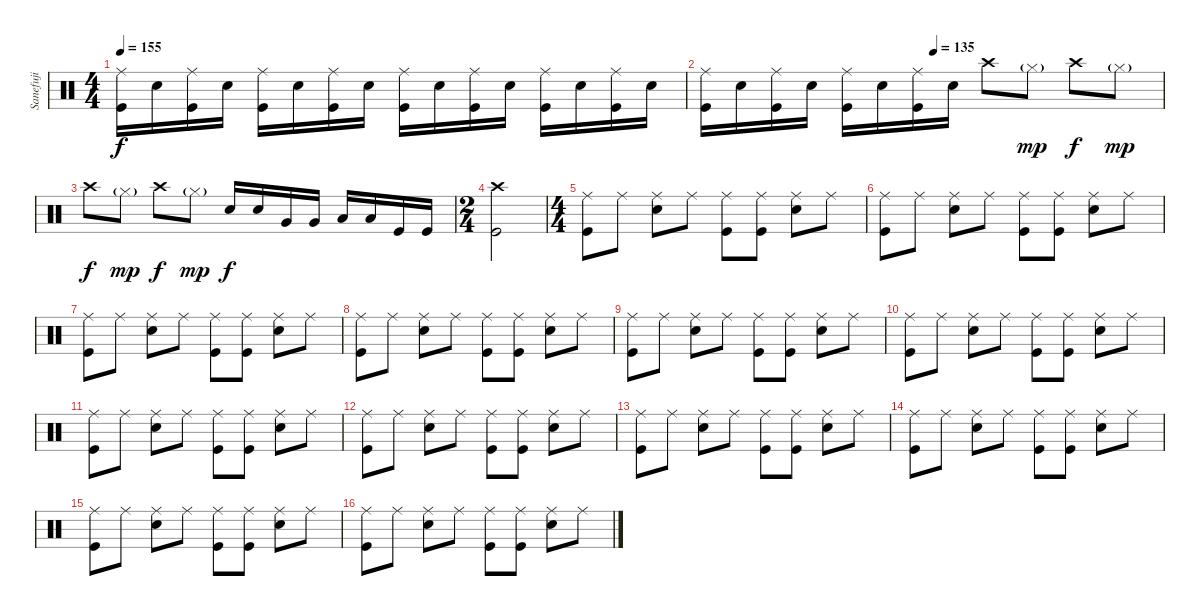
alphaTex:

\track ("Sanefuji" "Sanefuji") {instrument percussion}
\staff {score}
\articulation defaults
\ts (4 4)
\tempo 155
\clef neutral
\ks c
("Ride (middle)" "Kick (hit)").16{dy f} "Electric Snare (hit)".16 ("Ride (middle)" "Kick (hit)").16 "Electric Snare (hit)".16 ("Ride (middle)" "Kick (hit)").16 "Electric Snare (hit)".16 ("Ride (middle)" "Kick (hit)").16 "Electric Snare (hit)".16 ("Ride (middle)" "Kick (hit)").16 "Electric Snare (hit)".16 ("Ride (middle)" "Kick (hit)").16 "Electric Snare (hit)".16 ("Ride (middle)" "Kick (hit)").16 "Electric Snare (hit)".16 ("Ride (middle)" "Kick (hit)").16 "Electric Snare (hit)".16 |
\tempo (135 0.5)
("Ride (middle)" "Kick (hit)").16 "Electric Snare (hit)".16 ("Ride (middle)" "Kick (hit)").16 "Electric Snare (hit)".16 ("Ride (middle)" "Kick (hit)").16 "Electric Snare (hit)".16 ("Ride (middle)" "Kick (hit)").16 "Electric Snare (hit)".16 "Crash high (hit)".8 "Hi-Hat (closed)"{g}.8{dy mp} "Crash high (hit)".8{dy f} "Hi-Hat (closed)"{g}.8{dy mp} |
"Crash high (hit)".8{dy f} "Hi-Hat (closed)"{g}.8{dy mp} "Crash high (hit)".8{dy f} "Hi-Hat (closed)"{g}.8{dy mp} "Electric Snare (hit)".16{dy f} "Electric Snare (hit)".16 "Very Low Tom (hit)".16 "Very Low Tom (hit)".16 "Low Tom (hit)".16 "Low Tom (hit)".16 "Kick (hit)".16 "Kick (hit)".16 |
\ts (2 4)
("Crash high (hit)" "Kick (hit)").2 |
\ts (4 4)
("Ride (middle)" "Kick (hit)").8 "Ride (middle)".8 ("Ride (middle)" "Electric Snare (hit)").8 "Ride (middle)".8 ("Ride (middle)" "Kick (hit)").8 ("Ride (middle)" "Kick (hit)").8 ("Ride (middle)" "Electric Snare (hit)").8 "Ride (middle)".8 |
("Ride (middle)" "Kick (hit)").8 "Ride (middle)".8 ("Ride (middle)" "Electric Snare (hit)").8 "Ride (middle)".8 ("Ride (middle)" "Kick (hit)").8 ("Ride (middle)" "Kick (hit)").8 ("Ride (middle)" "Electric Snare (hit)").8 "Ride (middle)".8 |
("Ride (middle)" "Kick (hit)").8 "Ride (middle)".8 ("Ride (middle)" "Electric Snare (hit)").8 "Ride (middle)".8 ("Ride (middle)" "Kick (hit)").8 ("Ride (middle)" "Kick (hit)").8 ("Ride (middle)" "Electric Snare (hit)").8 "Ride (middle)".8 |
("Ride (middle)" "Kick (hit)").8 "Ride (middle)".8 ("Ride (middle)" "Electric Snare (hit)").8 "Ride (middle)".8 ("Ride (middle)" "Kick (hit)").8 ("Ride (middle)" "Kick (hit)").8 ("Ride (middle)" "Electric Snare (hit)").8 "Ride (middle)".8 |
("Ride (middle)" "Kick (hit)").8 "Ride (middle)".8 ("Ride (middle)" "Electric Snare (hit)").8 "Ride (middle)".8 ("Ride (middle)" "Kick (hit)").8 ("Ride (middle)" "Kick (hit)").8 ("Ride (middle)" "Electric Snare (hit)").8 "Ride (middle)".8 |
("Ride (middle)" "Kick (hit)").8 "Ride (middle)".8 ("Ride (middle)" "Electric Snare (hit)").8 "Ride (middle)".8 ("Ride (middle)" "Kick (hit)").8 ("Ride (middle)" "Kick (hit)").8 ("Ride (middle)" "Electric Snare (hit)").8 "Ride (middle)".8 |
("Ride (middle)" "Kick (hit)").8 "Ride (middle)".8 ("Ride (middle)" "Electric Snare (hit)").8 "Ride (middle)".8 ("Ride (middle)" "Kick (hit)").8 ("Ride (middle)" "Kick (hit)").8 ("Ride (middle)" "Electric Snare (hit)").8 "Ride (middle)".8 |
("Ride (middle)" "Kick (hit)").8 "Ride (middle)".8 ("Ride (middle)" "Electric Snare (hit)").8 "Ride (middle)".8 ("Ride (middle)" "Kick (hit)").8 ("Ride (middle)" "Kick (hit)").8 ("Ride (middle)" "Electric Snare (hit)").8 "Ride (middle)".8 |
("Ride (middle)" "Kick (hit)").8 "Ride (middle)".8 ("Ride (middle)" "Electric Snare (hit)").8 "Ride (middle)".8 ("Ride (middle)" "Kick (hit)").8 ("Ride (middle)" "Kick (hit)").8 ("Ride (middle)" "Electric Snare (hit)").8 "Ride (middle)".8 |
("Ride (middle)" "Kick (hit)").8 "Ride (middle)".8 ("Ride (middle)" "Electric Snare (hit)").8 "Ride (middle)".8 ("Ride (middle)" "Kick (hit)").8 ("Ride (middle)" "Kick (hit)").8 ("Ride (middle)" "Electric Snare (hit)").8 "Ride (middle)".8 |
("Ride (middle)" "Kick (hit)").8 "Ride (middle)".8 ("Ride (middle)" "Electric Snare (hit)").8 "Ride (middle)".8 ("Ride (middle)" "Kick (hit)").8 ("Ride (middle)" "Kick (hit)").8 ("Ride (middle)" "Electric Snare (hit)").8 "Ride (middle)".8 |
("Ride (middle)" "Kick (hit)").8 "Ride (middle)".8 ("Ride (middle)" "Electric Snare (hit)").8 "Ride (middle)".8 ("Ride (middle)" "Kick (hit)").8 ("Ride (middle)" "Kick (hit)").8 ("Ride (middle)" "Electric Snare (hit)").8 "Ride (middle)".8
